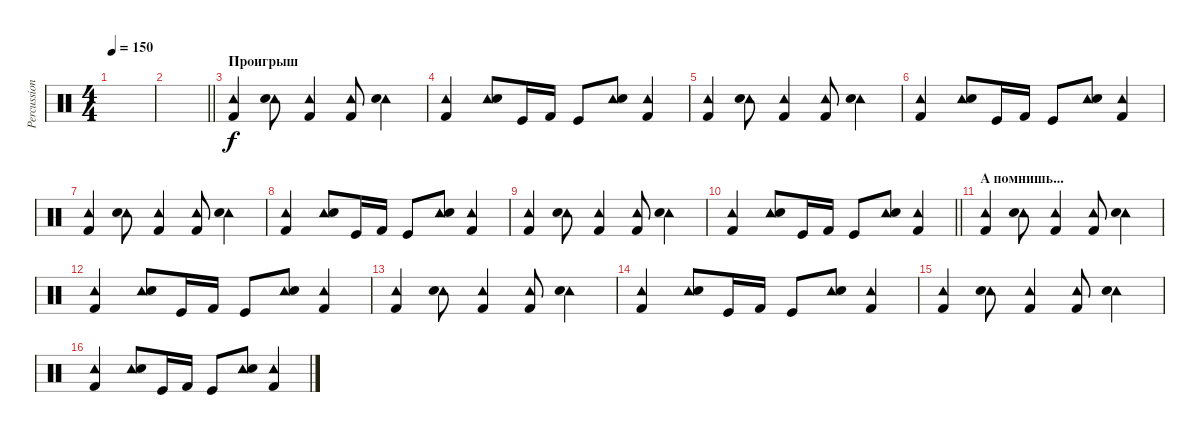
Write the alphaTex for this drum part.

\track ("Percussion" "Percussion") {instrument percussion bank 3}
\staff {score}
\articulation defaults
\ts (4 4)
\tempo 150
\clef neutral
\ks c
|
\barLineRight lightlight
|
\section ("" "Проигрыш")
("Tambourine (hit)" "Kick (hit) 2").4 ("Tambourine (hit)" "Snare (hit) 2").8 ("Tambourine (hit)" "Kick (hit) 2").4 ("Tambourine (hit)" "Kick (hit) 2").8 ("Tambourine (hit)" "Snare (hit) 2").4 |
("Tambourine (hit)" "Kick (hit) 2").4 ("Tambourine (hit)" "Snare (hit) 2").8 "Kick (hit)".16 "Kick (hit) 2".16 "Kick (hit)".8 ("Tambourine (hit)" "Snare (hit) 2").8 ("Tambourine (hit)" "Kick (hit) 2").4 |
("Tambourine (hit)" "Kick (hit) 2").4 ("Tambourine (hit)" "Snare (hit) 2").8 ("Tambourine (hit)" "Kick (hit) 2").4 ("Tambourine (hit)" "Kick (hit) 2").8 ("Tambourine (hit)" "Snare (hit) 2").4 |
("Tambourine (hit)" "Kick (hit) 2").4 ("Tambourine (hit)" "Snare (hit) 2").8 "Kick (hit)".16 "Kick (hit) 2".16 "Kick (hit)".8 ("Tambourine (hit)" "Snare (hit) 2").8 ("Tambourine (hit)" "Kick (hit) 2").4 |
("Tambourine (hit)" "Kick (hit) 2").4 ("Tambourine (hit)" "Snare (hit) 2").8 ("Tambourine (hit)" "Kick (hit) 2").4 ("Tambourine (hit)" "Kick (hit) 2").8 ("Tambourine (hit)" "Snare (hit) 2").4 |
("Tambourine (hit)" "Kick (hit) 2").4 ("Tambourine (hit)" "Snare (hit) 2").8 "Kick (hit)".16 "Kick (hit) 2".16 "Kick (hit)".8 ("Tambourine (hit)" "Snare (hit) 2").8 ("Tambourine (hit)" "Kick (hit) 2").4 |
("Tambourine (hit)" "Kick (hit) 2").4 ("Tambourine (hit)" "Snare (hit) 2").8 ("Tambourine (hit)" "Kick (hit) 2").4 ("Tambourine (hit)" "Kick (hit) 2").8 ("Tambourine (hit)" "Snare (hit) 2").4 |
\barLineRight lightlight
("Tambourine (hit)" "Kick (hit) 2").4 ("Tambourine (hit)" "Snare (hit) 2").8 "Kick (hit)".16 "Kick (hit) 2".16 "Kick (hit)".8 ("Tambourine (hit)" "Snare (hit) 2").8 ("Tambourine (hit)" "Kick (hit) 2").4 |
\section ("" "А помнишь...")
("Tambourine (hit)" "Kick (hit) 2").4 ("Tambourine (hit)" "Snare (hit) 2").8 ("Tambourine (hit)" "Kick (hit) 2").4 ("Tambourine (hit)" "Kick (hit) 2").8 ("Tambourine (hit)" "Snare (hit) 2").4 |
("Tambourine (hit)" "Kick (hit) 2").4 ("Tambourine (hit)" "Snare (hit) 2").8 "Kick (hit)".16 "Kick (hit) 2".16 "Kick (hit)".8 ("Tambourine (hit)" "Snare (hit) 2").8 ("Tambourine (hit)" "Kick (hit) 2").4 |
("Tambourine (hit)" "Kick (hit) 2").4 ("Tambourine (hit)" "Snare (hit) 2").8 ("Tambourine (hit)" "Kick (hit) 2").4 ("Tambourine (hit)" "Kick (hit) 2").8 ("Tambourine (hit)" "Snare (hit) 2").4 |
("Tambourine (hit)" "Kick (hit) 2").4 ("Tambourine (hit)" "Snare (hit) 2").8 "Kick (hit)".16 "Kick (hit) 2".16 "Kick (hit)".8 ("Tambourine (hit)" "Snare (hit) 2").8 ("Tambourine (hit)" "Kick (hit) 2").4 |
("Tambourine (hit)" "Kick (hit) 2").4 ("Tambourine (hit)" "Snare (hit) 2").8 ("Tambourine (hit)" "Kick (hit) 2").4 ("Tambourine (hit)" "Kick (hit) 2").8 ("Tambourine (hit)" "Snare (hit) 2").4 |
("Tambourine (hit)" "Kick (hit) 2").4 ("Tambourine (hit)" "Snare (hit) 2").8 "Kick (hit)".16 "Kick (hit) 2".16 "Kick (hit)".8 ("Tambourine (hit)" "Snare (hit) 2").8 ("Tambourine (hit)" "Kick (hit) 2").4
